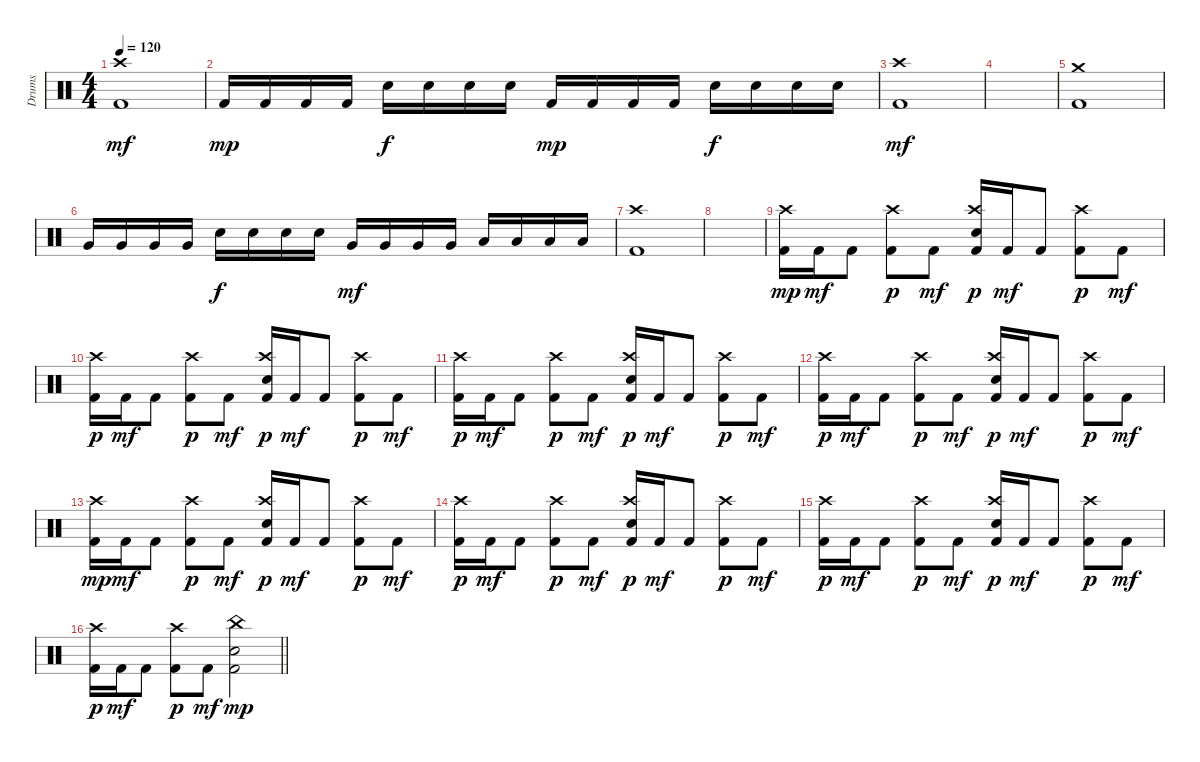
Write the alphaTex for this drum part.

\track ("Drums" "Drums") {instrument percussion}
\staff {score}
\articulation defaults
\ts (4 4)
\tempo 120
\clef neutral
\ks c
("Kick (hit) 2" "Crash high (hit)").1{dy mf} |
"Kick (hit) 2".16{dy mp} "Kick (hit) 2".16 "Kick (hit) 2".16 "Kick (hit) 2".16 "Snare (hit) 2".16{dy f} "Snare (hit) 2".16 "Snare (hit) 2".16 "Snare (hit) 2".16 "Kick (hit) 2".16{dy mp} "Kick (hit) 2".16 "Kick (hit) 2".16 "Kick (hit) 2".16 "Snare (hit) 2".16{dy f} "Snare (hit) 2".16 "Snare (hit) 2".16 "Snare (hit) 2".16 |
("Kick (hit) 2" "Crash high (hit)").1{dy mf} |
|
("Kick (hit) 2" "Crash medium (hit)").1 |
"Very Low Tom (hit)".16 "Very Low Tom (hit)".16 "Very Low Tom (hit)".16 "Very Low Tom (hit)".16 "Snare (hit) 2".16{dy f} "Snare (hit) 2".16 "Snare (hit) 2".16 "Snare (hit) 2".16 "Very Low Tom (hit)".16{dy mf} "Very Low Tom (hit)".16 "Very Low Tom (hit)".16 "Very Low Tom (hit)".16 "Low Floor Tom (hit)".16 "Low Floor Tom (hit)".16 "Low Floor Tom (hit)".16 "Low Floor Tom (hit)".16 |
("Kick (hit) 2" "Crash high (hit)").1 |
|
("Kick (hit) 2" "Crash high (hit)").16{dy mp} "Kick (hit) 2".16{dy mf} "Kick (hit) 2".8 ("Kick (hit) 2" "Crash high (hit)").8{dy p} "Kick (hit) 2".8{dy mf} ("Kick (hit) 2" "Crash high (hit)" "Snare (hit) 2").16{dy p} "Kick (hit) 2".16{dy mf} "Kick (hit) 2".8 ("Kick (hit) 2" "Crash high (hit)").8{dy p} "Kick (hit) 2".8{dy mf} |
("Kick (hit) 2" "Crash high (hit)").16{dy p} "Kick (hit) 2".16{dy mf} "Kick (hit) 2".8 ("Kick (hit) 2" "Crash high (hit)").8{dy p} "Kick (hit) 2".8{dy mf} ("Kick (hit) 2" "Crash high (hit)" "Snare (hit) 2").16{dy p} "Kick (hit) 2".16{dy mf} "Kick (hit) 2".8 ("Kick (hit) 2" "Crash high (hit)").8{dy p} "Kick (hit) 2".8{dy mf} |
("Kick (hit) 2" "Crash high (hit)").16{dy p} "Kick (hit) 2".16{dy mf} "Kick (hit) 2".8 ("Kick (hit) 2" "Crash high (hit)").8{dy p} "Kick (hit) 2".8{dy mf} ("Kick (hit) 2" "Crash high (hit)" "Snare (hit) 2").16{dy p} "Kick (hit) 2".16{dy mf} "Kick (hit) 2".8 ("Kick (hit) 2" "Crash high (hit)").8{dy p} "Kick (hit) 2".8{dy mf} |
("Kick (hit) 2" "Crash high (hit)").16{dy p} "Kick (hit) 2".16{dy mf} "Kick (hit) 2".8 ("Kick (hit) 2" "Crash high (hit)").8{dy p} "Kick (hit) 2".8{dy mf} ("Kick (hit) 2" "Crash high (hit)" "Snare (hit) 2").16{dy p} "Kick (hit) 2".16{dy mf} "Kick (hit) 2".8 ("Kick (hit) 2" "Crash high (hit)").8{dy p} "Kick (hit) 2".8{dy mf} |
("Kick (hit) 2" "Crash high (hit)").16{dy mp} "Kick (hit) 2".16{dy mf} "Kick (hit) 2".8 ("Kick (hit) 2" "Crash high (hit)").8{dy p} "Kick (hit) 2".8{dy mf} ("Kick (hit) 2" "Crash high (hit)" "Snare (hit) 2").16{dy p} "Kick (hit) 2".16{dy mf} "Kick (hit) 2".8 ("Kick (hit) 2" "Crash high (hit)").8{dy p} "Kick (hit) 2".8{dy mf} |
("Kick (hit) 2" "Crash high (hit)").16{dy p} "Kick (hit) 2".16{dy mf} "Kick (hit) 2".8 ("Kick (hit) 2" "Crash high (hit)").8{dy p} "Kick (hit) 2".8{dy mf} ("Kick (hit) 2" "Crash high (hit)" "Snare (hit) 2").16{dy p} "Kick (hit) 2".16{dy mf} "Kick (hit) 2".8 ("Kick (hit) 2" "Crash high (hit)").8{dy p} "Kick (hit) 2".8{dy mf} |
("Kick (hit) 2" "Crash high (hit)").16{dy p} "Kick (hit) 2".16{dy mf} "Kick (hit) 2".8 ("Kick (hit) 2" "Crash high (hit)").8{dy p} "Kick (hit) 2".8{dy mf} ("Kick (hit) 2" "Crash high (hit)" "Snare (hit) 2").16{dy p} "Kick (hit) 2".16{dy mf} "Kick (hit) 2".8 ("Kick (hit) 2" "Crash high (hit)").8{dy p} "Kick (hit) 2".8{dy mf} |
\barLineRight lightlight
("Kick (hit) 2" "Crash high (hit)").16{dy p} "Kick (hit) 2".16{dy mf} "Kick (hit) 2".8 ("Kick (hit) 2" "Crash high (hit)").8{dy p} "Kick (hit) 2".8{dy mf} ("Kick (hit) 2" "China (hit)" "Snare (hit) 2").2{dy mp}
